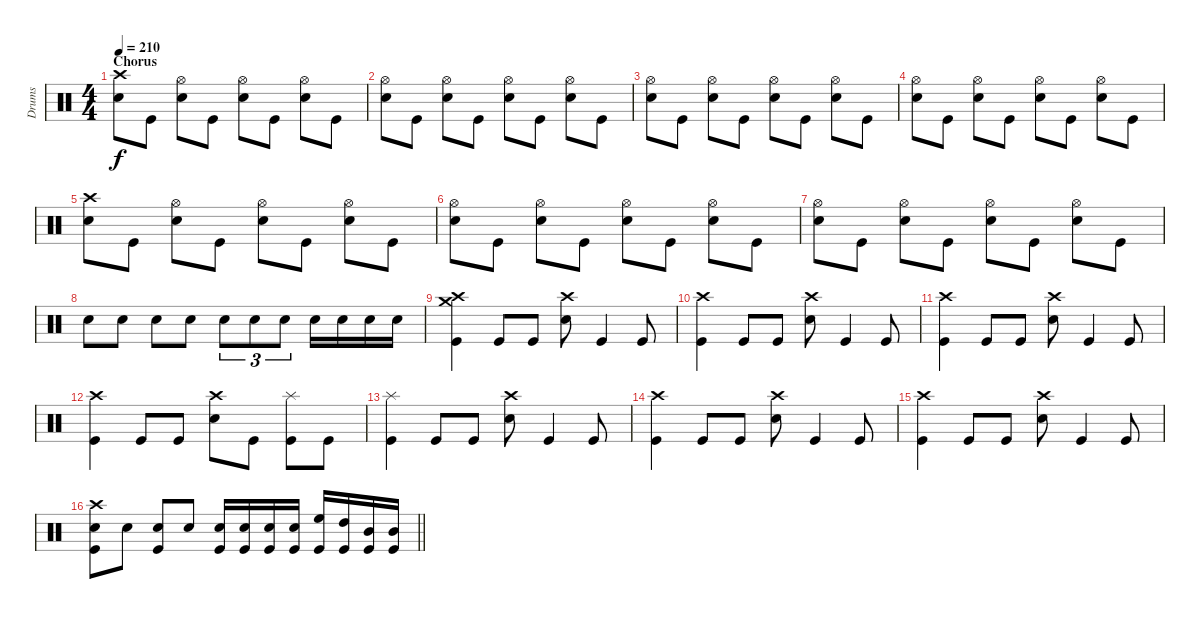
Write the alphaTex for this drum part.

\track ("Drums" "Drums") {instrument percussion}
\staff {score}
\articulation defaults
\ts (4 4)
\section ("" "Chorus")
\tempo 210
\clef neutral
\ks c
("Crash high (hit)" "Snare (hit) 2").8{dy f} "Kick (hit)".8 ("Hi-Hat (open)" "Snare (hit) 2").8 "Kick (hit)".8 ("Hi-Hat (open)" "Snare (hit) 2").8 "Kick (hit)".8 ("Hi-Hat (open)" "Snare (hit) 2").8 "Kick (hit)".8 |
("Hi-Hat (open)" "Snare (hit) 2").8 "Kick (hit)".8 ("Hi-Hat (open)" "Snare (hit) 2").8 "Kick (hit)".8 ("Hi-Hat (open)" "Snare (hit) 2").8 "Kick (hit)".8 ("Hi-Hat (open)" "Snare (hit) 2").8 "Kick (hit)".8 |
("Hi-Hat (open)" "Snare (hit) 2").8 "Kick (hit)".8 ("Hi-Hat (open)" "Snare (hit) 2").8 "Kick (hit)".8 ("Hi-Hat (open)" "Snare (hit) 2").8 "Kick (hit)".8 ("Hi-Hat (open)" "Snare (hit) 2").8 "Kick (hit)".8 |
("Hi-Hat (open)" "Snare (hit) 2").8 "Kick (hit)".8 ("Hi-Hat (open)" "Snare (hit) 2").8 "Kick (hit)".8 ("Hi-Hat (open)" "Snare (hit) 2").8 "Kick (hit)".8 ("Hi-Hat (open)" "Snare (hit) 2").8 "Kick (hit)".8 |
("Crash high (hit)" "Snare (hit) 2").8 "Kick (hit)".8 ("Hi-Hat (open)" "Snare (hit) 2").8 "Kick (hit)".8 ("Hi-Hat (open)" "Snare (hit) 2").8 "Kick (hit)".8 ("Hi-Hat (open)" "Snare (hit) 2").8 "Kick (hit)".8 |
("Hi-Hat (open)" "Snare (hit) 2").8 "Kick (hit)".8 ("Hi-Hat (open)" "Snare (hit) 2").8 "Kick (hit)".8 ("Hi-Hat (open)" "Snare (hit) 2").8 "Kick (hit)".8 ("Hi-Hat (open)" "Snare (hit) 2").8 "Kick (hit)".8 |
("Hi-Hat (open)" "Snare (hit) 2").8 "Kick (hit)".8 ("Hi-Hat (open)" "Snare (hit) 2").8 "Kick (hit)".8 ("Hi-Hat (open)" "Snare (hit) 2").8 "Kick (hit)".8 ("Hi-Hat (open)" "Snare (hit) 2").8 "Kick (hit)".8 |
"Snare (hit) 2".8 "Snare (hit) 2".8 "Snare (hit) 2".8 "Snare (hit) 2".8 "Snare (hit) 2".8{tu (3 2)} "Snare (hit) 2".8{tu (3 2)} "Snare (hit) 2".8{tu (3 2)} "Snare (hit) 2".16 "Snare (hit) 2".16 "Snare (hit) 2".16 "Snare (hit) 2".16 |
("Crash high (hit)" "Crash medium (hit)" "Kick (hit)").4 "Kick (hit)".8 "Kick (hit)".8 ("Crash high (hit)" "Snare (hit) 2").8 "Kick (hit)".4 "Kick (hit)".8 |
("Crash high (hit)" "Kick (hit)").4 "Kick (hit)".8 "Kick (hit)".8 ("Crash high (hit)" "Snare (hit) 2").8 "Kick (hit)".4 "Kick (hit)".8 |
("Crash high (hit)" "Kick (hit)").4 "Kick (hit)".8 "Kick (hit)".8 ("Crash high (hit)" "Snare (hit) 2").8 "Kick (hit)".4 "Kick (hit)".8 |
("Crash high (hit)" "Kick (hit)").4 "Kick (hit)".8 "Kick (hit)".8 ("Crash high (hit)" "Snare (hit) 2").8 "Kick (hit)".8 ("Splash (hit)" "Kick (hit)").8 "Kick (hit)".8 |
("Splash (hit)" "Kick (hit)").4 "Kick (hit)".8 "Kick (hit)".8 ("Crash high (hit)" "Snare (hit) 2").8 "Kick (hit)".4 "Kick (hit)".8 |
("Crash high (hit)" "Kick (hit)").4 "Kick (hit)".8 "Kick (hit)".8 ("Crash high (hit)" "Snare (hit) 2").8 "Kick (hit)".4 "Kick (hit)".8 |
("Crash high (hit)" "Kick (hit)").4 "Kick (hit)".8 "Kick (hit)".8 ("Crash high (hit)" "Snare (hit) 2").8 "Kick (hit)".4 "Kick (hit)".8 |
\barLineRight lightlight
("Crash high (hit)" "Snare (hit) 2" "Kick (hit)").8 "Snare (hit) 2".8 ("Snare (hit) 2" "Kick (hit)").8 "Snare (hit) 2".8 ("Snare (hit) 2" "Kick (hit)").16 ("Snare (hit) 2" "Kick (hit)").16 ("Snare (hit) 2" "Kick (hit)").16 ("Snare (hit) 2" "Kick (hit)").16 ("High Floor Tom (hit)" "Kick (hit)").16 ("High Tom (hit)" "Kick (hit)").16 ("Mid Tom (hit)" "Kick (hit)").16 ("Mid Tom (hit)" "Kick (hit)").16
